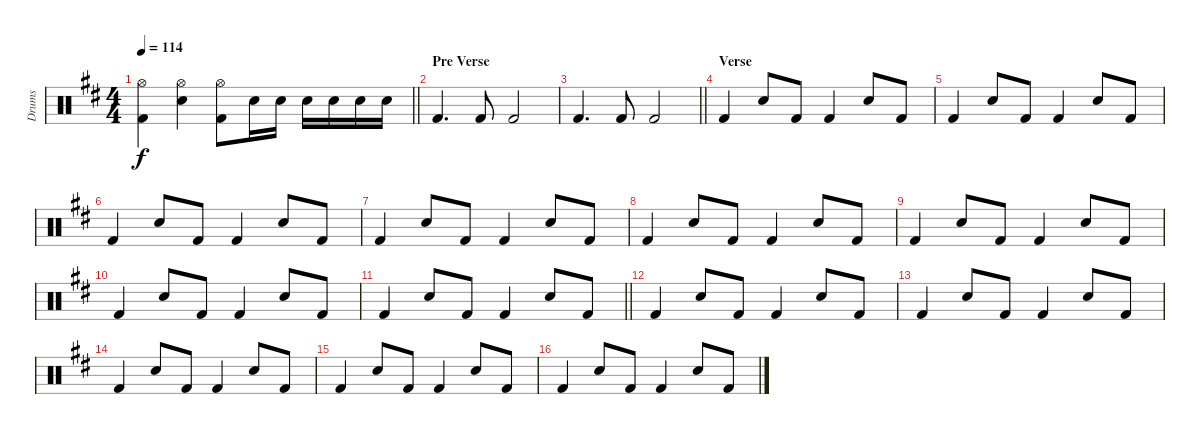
\track ("Drums" "Drums") {instrument percussion}
\staff {score}
\articulation defaults
\ts (4 4)
\tempo 114
\clef neutral
\barLineRight lightlight
\ks bminor
("Hi-Hat (open)" "Kick (hit) 2").4{dy f} ("Hi-Hat (open)" "Snare (hit) 2").4 ("Hi-Hat (open)" "Kick (hit) 2").8 "Snare (hit) 2".16 "Snare (hit) 2".16 "Snare (hit) 2".16 "Snare (hit) 2".16 "Snare (hit) 2".16 "Snare (hit) 2".16 |
\section ("" "Pre Verse")
"Kick (hit) 2".4{d} "Kick (hit) 2".8 "Kick (hit) 2".2 |
\barLineRight lightlight "Kick (hit) 2".4{d} "Kick (hit) 2".8 "Kick (hit) 2".2
|
\section ("" "Verse")
"Kick (hit) 2".4 "Snare (hit) 2".8 "Kick (hit) 2".8 "Kick (hit) 2".4 "Snare (hit) 2".8 "Kick (hit) 2".8 |
"Kick (hit) 2".4 "Snare (hit) 2".8 "Kick (hit) 2".8 "Kick (hit) 2".4 "Snare (hit) 2".8 "Kick (hit) 2".8 |
"Kick (hit) 2".4 "Snare (hit) 2".8 "Kick (hit) 2".8 "Kick (hit) 2".4 "Snare (hit) 2".8 "Kick (hit) 2".8 |
"Kick (hit) 2".4 "Snare (hit) 2".8 "Kick (hit) 2".8 "Kick (hit) 2".4 "Snare (hit) 2".8 "Kick (hit) 2".8 |
"Kick (hit) 2".4 "Snare (hit) 2".8 "Kick (hit) 2".8 "Kick (hit) 2".4 "Snare (hit) 2".8 "Kick (hit) 2".8 |
"Kick (hit) 2".4 "Snare (hit) 2".8 "Kick (hit) 2".8 "Kick (hit) 2".4 "Snare (hit) 2".8 "Kick (hit) 2".8 |
"Kick (hit) 2".4 "Snare (hit) 2".8 "Kick (hit) 2".8 "Kick (hit) 2".4 "Snare (hit) 2".8 "Kick (hit) 2".8 |
\barLineRight lightlight "Kick (hit) 2".4 "Snare (hit) 2".8 "Kick (hit) 2".8 "Kick (hit) 2".4 "Snare (hit) 2".8 "Kick (hit) 2".8
|
"Kick (hit) 2".4 "Snare (hit) 2".8 "Kick (hit) 2".8 "Kick (hit) 2".4 "Snare (hit) 2".8 "Kick (hit) 2".8 |
"Kick (hit) 2".4 "Snare (hit) 2".8 "Kick (hit) 2".8 "Kick (hit) 2".4 "Snare (hit) 2".8 "Kick (hit) 2".8 |
"Kick (hit) 2".4 "Snare (hit) 2".8 "Kick (hit) 2".8 "Kick (hit) 2".4 "Snare (hit) 2".8 "Kick (hit) 2".8 |
"Kick (hit) 2".4 "Snare (hit) 2".8 "Kick (hit) 2".8 "Kick (hit) 2".4 "Snare (hit) 2".8 "Kick (hit) 2".8 |
"Kick (hit) 2".4 "Snare (hit) 2".8 "Kick (hit) 2".8 "Kick (hit) 2".4 "Snare (hit) 2".8 "Kick (hit) 2".8
